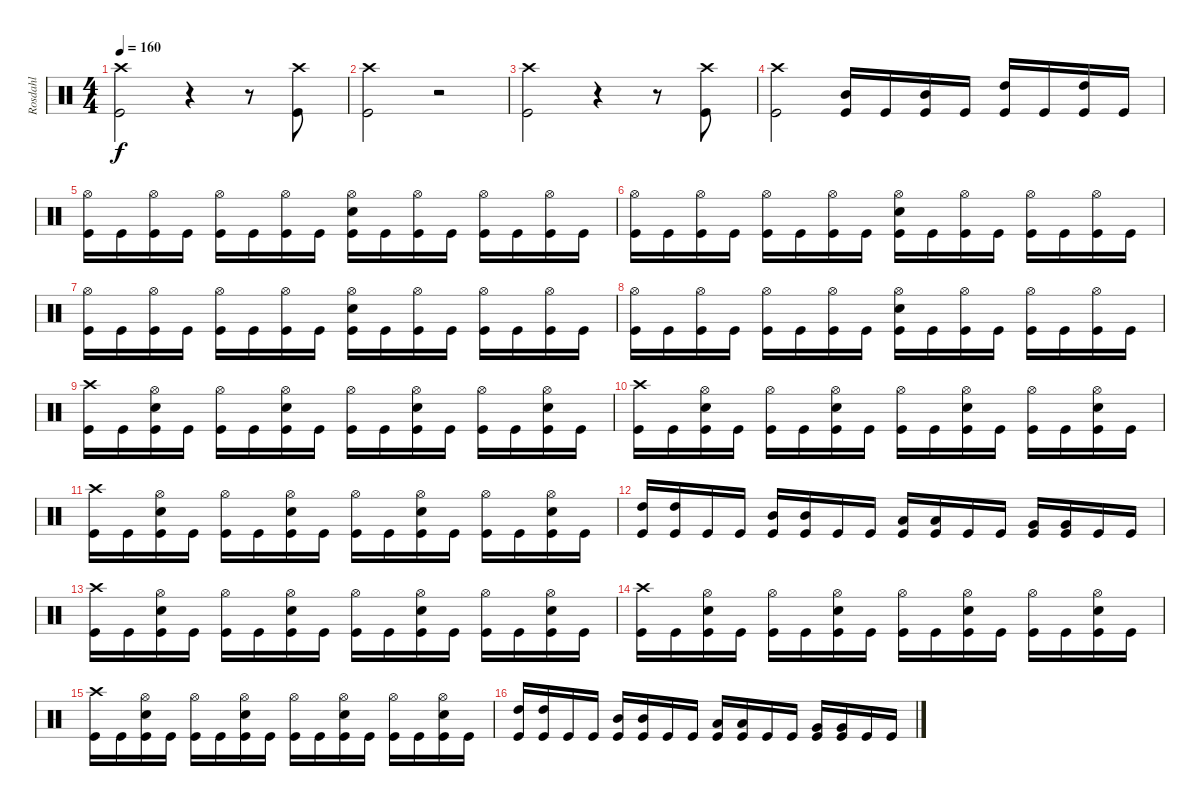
\track ("Rosdahl" "Rosdahl") {instrument percussion}
\staff {score}
\articulation defaults
\ts (4 4)
\tempo 160
\clef neutral
\ks c
("Crash high (hit)" "Kick (hit)").2{dy f volume 12} r.4 r.8 ("Crash high (hit)" "Kick (hit)").8 |
("Crash high (hit)" "Kick (hit)").2 r.2 |
("Crash high (hit)" "Kick (hit)").2{volume 12} r.4 r.8 ("Crash high (hit)" "Kick (hit)").8 |
("Crash high (hit)" "Kick (hit)").2 ("Mid Tom (hit)" "Kick (hit)").16 "Kick (hit)".16 ("Mid Tom (hit)" "Kick (hit)").16 "Kick (hit)".16 ("High Tom (hit)" "Kick (hit)").16 "Kick (hit)".16 ("High Tom (hit)" "Kick (hit)").16 "Kick (hit)".16 |
("Hi-Hat (open)" "Kick (hit)").16{volume 12} "Kick (hit)".16 ("Hi-Hat (open)" "Kick (hit)").16 "Kick (hit)".16 ("Hi-Hat (open)" "Kick (hit)").16 "Kick (hit)".16 ("Hi-Hat (open)" "Kick (hit)").16 "Kick (hit)".16 ("Hi-Hat (open)" "Electric Snare (hit)" "Kick (hit)").16 "Kick (hit)".16 ("Hi-Hat (open)" "Kick (hit)").16 "Kick (hit)".16 ("Hi-Hat (open)" "Kick (hit)").16 "Kick (hit)".16 ("Hi-Hat (open)" "Kick (hit)").16 "Kick (hit)".16 |
("Hi-Hat (open)" "Kick (hit)").16{volume 12} "Kick (hit)".16 ("Hi-Hat (open)" "Kick (hit)").16 "Kick (hit)".16 ("Hi-Hat (open)" "Kick (hit)").16 "Kick (hit)".16 ("Hi-Hat (open)" "Kick (hit)").16 "Kick (hit)".16 ("Hi-Hat (open)" "Electric Snare (hit)" "Kick (hit)").16 "Kick (hit)".16 ("Hi-Hat (open)" "Kick (hit)").16 "Kick (hit)".16 ("Hi-Hat (open)" "Kick (hit)").16 "Kick (hit)".16 ("Hi-Hat (open)" "Kick (hit)").16 "Kick (hit)".16 |
("Hi-Hat (open)" "Kick (hit)").16{volume 12} "Kick (hit)".16 ("Hi-Hat (open)" "Kick (hit)").16 "Kick (hit)".16 ("Hi-Hat (open)" "Kick (hit)").16 "Kick (hit)".16 ("Hi-Hat (open)" "Kick (hit)").16 "Kick (hit)".16 ("Hi-Hat (open)" "Electric Snare (hit)" "Kick (hit)").16 "Kick (hit)".16 ("Hi-Hat (open)" "Kick (hit)").16 "Kick (hit)".16 ("Hi-Hat (open)" "Kick (hit)").16 "Kick (hit)".16 ("Hi-Hat (open)" "Kick (hit)").16 "Kick (hit)".16 |
("Hi-Hat (open)" "Kick (hit)").16{volume 12} "Kick (hit)".16 ("Hi-Hat (open)" "Kick (hit)").16 "Kick (hit)".16 ("Hi-Hat (open)" "Kick (hit)").16 "Kick (hit)".16 ("Hi-Hat (open)" "Kick (hit)").16 "Kick (hit)".16 ("Hi-Hat (open)" "Electric Snare (hit)" "Kick (hit)").16 "Kick (hit)".16 ("Hi-Hat (open)" "Kick (hit)").16 "Kick (hit)".16 ("Hi-Hat (open)" "Kick (hit)").16 "Kick (hit)".16 ("Hi-Hat (open)" "Kick (hit)").16 "Kick (hit)".16 |
("Crash high (hit)" "Kick (hit)").16{volume 16} "Kick (hit)".16 ("Hi-Hat (open)" "Electric Snare (hit)" "Kick (hit)").16 "Kick (hit)".16 ("Hi-Hat (open)" "Kick (hit)").16 "Kick (hit)".16 ("Hi-Hat (open)" "Electric Snare (hit)" "Kick (hit)").16 "Kick (hit)".16 ("Hi-Hat (open)" "Kick (hit)").16 "Kick (hit)".16 ("Hi-Hat (open)" "Electric Snare (hit)" "Kick (hit)").16 "Kick (hit)".16 ("Hi-Hat (open)" "Kick (hit)").16 "Kick (hit)".16 ("Hi-Hat (open)" "Electric Snare (hit)" "Kick (hit)").16 "Kick (hit)".16 |
("Crash high (hit)" "Kick (hit)").16 "Kick (hit)".16 ("Hi-Hat (open)" "Electric Snare (hit)" "Kick (hit)").16 "Kick (hit)".16 ("Hi-Hat (open)" "Kick (hit)").16 "Kick (hit)".16 ("Hi-Hat (open)" "Electric Snare (hit)" "Kick (hit)").16 "Kick (hit)".16 ("Hi-Hat (open)" "Kick (hit)").16 "Kick (hit)".16 ("Hi-Hat (open)" "Electric Snare (hit)" "Kick (hit)").16 "Kick (hit)".16 ("Hi-Hat (open)" "Kick (hit)").16 "Kick (hit)".16 ("Hi-Hat (open)" "Electric Snare (hit)" "Kick (hit)").16 "Kick (hit)".16 |
("Crash high (hit)" "Kick (hit)").16 "Kick (hit)".16 ("Hi-Hat (open)" "Electric Snare (hit)" "Kick (hit)").16 "Kick (hit)".16 ("Hi-Hat (open)" "Kick (hit)").16 "Kick (hit)".16 ("Hi-Hat (open)" "Electric Snare (hit)" "Kick (hit)").16 "Kick (hit)".16 ("Hi-Hat (open)" "Kick (hit)").16 "Kick (hit)".16 ("Hi-Hat (open)" "Electric Snare (hit)" "Kick (hit)").16 "Kick (hit)".16 ("Hi-Hat (open)" "Kick (hit)").16 "Kick (hit)".16 ("Hi-Hat (open)" "Electric Snare (hit)" "Kick (hit)").16 "Kick (hit)".16 |
("High Tom (hit)" "Kick (hit)").16 ("High Tom (hit)" "Kick (hit)").16 "Kick (hit)".16 "Kick (hit)".16 ("Mid Tom (hit)" "Kick (hit)").16 ("Mid Tom (hit)" "Kick (hit)").16 "Kick (hit)".16 "Kick (hit)".16 ("Low Tom (hit)" "Kick (hit)").16 ("Low Tom (hit)" "Kick (hit)").16 "Kick (hit)".16 "Kick (hit)".16 ("Very Low Tom (hit)" "Kick (hit)").16 ("Very Low Tom (hit)" "Kick (hit)").16 "Kick (hit)".16 "Kick (hit)".16 |
("Crash high (hit)" "Kick (hit)").16 "Kick (hit)".16 ("Hi-Hat (open)" "Electric Snare (hit)" "Kick (hit)").16 "Kick (hit)".16 ("Hi-Hat (open)" "Kick (hit)").16 "Kick (hit)".16 ("Hi-Hat (open)" "Electric Snare (hit)" "Kick (hit)").16 "Kick (hit)".16 ("Hi-Hat (open)" "Kick (hit)").16 "Kick (hit)".16 ("Hi-Hat (open)" "Electric Snare (hit)" "Kick (hit)").16 "Kick (hit)".16 ("Hi-Hat (open)" "Kick (hit)").16 "Kick (hit)".16 ("Hi-Hat (open)" "Electric Snare (hit)" "Kick (hit)").16 "Kick (hit)".16 |
("Crash high (hit)" "Kick (hit)").16 "Kick (hit)".16 ("Hi-Hat (open)" "Electric Snare (hit)" "Kick (hit)").16 "Kick (hit)".16 ("Hi-Hat (open)" "Kick (hit)").16 "Kick (hit)".16 ("Hi-Hat (open)" "Electric Snare (hit)" "Kick (hit)").16 "Kick (hit)".16 ("Hi-Hat (open)" "Kick (hit)").16 "Kick (hit)".16 ("Hi-Hat (open)" "Electric Snare (hit)" "Kick (hit)").16 "Kick (hit)".16 ("Hi-Hat (open)" "Kick (hit)").16 "Kick (hit)".16 ("Hi-Hat (open)" "Electric Snare (hit)" "Kick (hit)").16 "Kick (hit)".16 |
("Crash high (hit)" "Kick (hit)").16 "Kick (hit)".16 ("Hi-Hat (open)" "Electric Snare (hit)" "Kick (hit)").16 "Kick (hit)".16 ("Hi-Hat (open)" "Kick (hit)").16 "Kick (hit)".16 ("Hi-Hat (open)" "Electric Snare (hit)" "Kick (hit)").16 "Kick (hit)".16 ("Hi-Hat (open)" "Kick (hit)").16 "Kick (hit)".16 ("Hi-Hat (open)" "Electric Snare (hit)" "Kick (hit)").16 "Kick (hit)".16 ("Hi-Hat (open)" "Kick (hit)").16 "Kick (hit)".16 ("Hi-Hat (open)" "Electric Snare (hit)" "Kick (hit)").16 "Kick (hit)".16 |
("High Tom (hit)" "Kick (hit)").16 ("High Tom (hit)" "Kick (hit)").16 "Kick (hit)".16 "Kick (hit)".16 ("Mid Tom (hit)" "Kick (hit)").16 ("Mid Tom (hit)" "Kick (hit)").16 "Kick (hit)".16 "Kick (hit)".16 ("Low Tom (hit)" "Kick (hit)").16 ("Low Tom (hit)" "Kick (hit)").16 "Kick (hit)".16 "Kick (hit)".16 ("Very Low Tom (hit)" "Kick (hit)").16 ("Very Low Tom (hit)" "Kick (hit)").16 "Kick (hit)".16 "Kick (hit)".16
